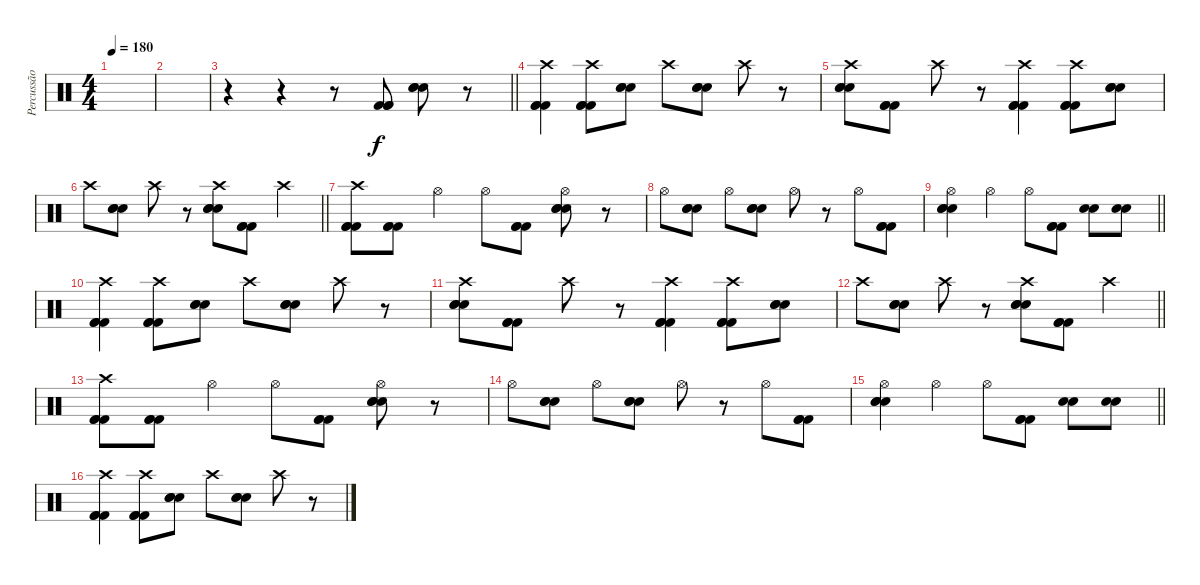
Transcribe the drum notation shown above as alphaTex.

\track ("Percussão" "Percussão") {instrument percussion}
\staff {score}
\articulation defaults
\ts (4 4)
\tempo 180
\clef neutral
\ks c
|
|
\barLineRight lightlight
r.4 r.4 r.8 ("Kick (hit) 2" "Kick (hit) 2" "Kick (hit) 2").8 ("Electric Snare (hit)" "Electric Snare (hit)" "Electric Snare (hit)").8 r.8 |
\section ("" "")
("Crash high (hit)" "Kick (hit) 2" "Kick (hit) 2" "Kick (hit) 2").4 ("Crash high (hit)" "Kick (hit) 2" "Kick (hit) 2" "Kick (hit) 2").8 ("Electric Snare (hit)" "Electric Snare (hit)" "Electric Snare (hit)").8 "Crash high (hit)".8 ("Electric Snare (hit)" "Electric Snare (hit)" "Electric Snare (hit)").8 "Crash high (hit)".8 r.8 |
("Crash high (hit)" "Electric Snare (hit)" "Electric Snare (hit)" "Electric Snare (hit)").8 ("Kick (hit) 2" "Kick (hit) 2" "Kick (hit) 2").8 "Crash high (hit)".8 r.8 ("Crash high (hit)" "Kick (hit) 2" "Kick (hit) 2" "Kick (hit) 2").4 ("Crash high (hit)" "Kick (hit) 2" "Kick (hit) 2" "Kick (hit) 2").8 ("Electric Snare (hit)" "Electric Snare (hit)" "Electric Snare (hit)").8 |
\barLineRight lightlight "Crash high (hit)".8
("Electric Snare (hit)" "Electric Snare (hit)" "Electric Snare (hit)").8 "Crash high (hit)".8 r.8 ("Crash high (hit)" "Electric Snare (hit)" "Electric Snare (hit)" "Electric Snare (hit)").8 ("Kick (hit) 2" "Kick (hit) 2" "Kick (hit) 2").8 "Crash high (hit)".4 |
\section ("" "")
("Crash high (hit)" "Kick (hit) 2" "Kick (hit) 2" "Kick (hit) 2").8 ("Kick (hit) 2" "Kick (hit) 2" "Kick (hit) 2").8 "Hi-Hat (open)".4 "Hi-Hat (open)".8 ("Kick (hit) 2" "Kick (hit) 2" "Kick (hit) 2").8 ("Hi-Hat (open)" "Electric Snare (hit)" "Electric Snare (hit)" "Electric Snare (hit)").8 r.8 |
"Hi-Hat (open)".8 ("Electric Snare (hit)" "Electric Snare (hit)" "Electric Snare (hit)").8 "Hi-Hat (open)".8 ("Electric Snare (hit)" "Electric Snare (hit)" "Electric Snare (hit)").8 "Hi-Hat (open)".8 r.8 "Hi-Hat (open)".8 ("Kick (hit) 2" "Kick (hit) 2" "Kick (hit) 2").8 |
\barLineRight lightlight
("Hi-Hat (open)" "Electric Snare (hit)" "Electric Snare (hit)" "Electric Snare (hit)").4 "Hi-Hat (open)".4 "Hi-Hat (open)".8 ("Kick (hit) 2" "Kick (hit) 2" "Kick (hit) 2").8 ("Electric Snare (hit)" "Electric Snare (hit)").8 ("Electric Snare (hit)" "Electric Snare (hit)").8 |
\section ("" "")
("Crash high (hit)" "Kick (hit) 2" "Kick (hit) 2" "Kick (hit) 2").4 ("Crash high (hit)" "Kick (hit) 2" "Kick (hit) 2" "Kick (hit) 2").8 ("Electric Snare (hit)" "Electric Snare (hit)" "Electric Snare (hit)").8 "Crash high (hit)".8 ("Electric Snare (hit)" "Electric Snare (hit)" "Electric Snare (hit)").8 "Crash high (hit)".8 r.8 |
("Crash high (hit)" "Electric Snare (hit)" "Electric Snare (hit)" "Electric Snare (hit)").8 ("Kick (hit) 2" "Kick (hit) 2" "Kick (hit) 2").8 "Crash high (hit)".8 r.8 ("Crash high (hit)" "Kick (hit) 2" "Kick (hit) 2" "Kick (hit) 2").4 ("Crash high (hit)" "Kick (hit) 2" "Kick (hit) 2" "Kick (hit) 2").8 ("Electric Snare (hit)" "Electric Snare (hit)" "Electric Snare (hit)").8 |
\barLineRight lightlight "Crash high (hit)".8
("Electric Snare (hit)" "Electric Snare (hit)" "Electric Snare (hit)").8 "Crash high (hit)".8 r.8 ("Crash high (hit)" "Electric Snare (hit)" "Electric Snare (hit)" "Electric Snare (hit)").8 ("Kick (hit) 2" "Kick (hit) 2" "Kick (hit) 2").8 "Crash high (hit)".4 |
\section ("" "")
("Crash high (hit)" "Kick (hit) 2" "Kick (hit) 2" "Kick (hit) 2").8 ("Kick (hit) 2" "Kick (hit) 2" "Kick (hit) 2").8 "Hi-Hat (open)".4 "Hi-Hat (open)".8 ("Kick (hit) 2" "Kick (hit) 2" "Kick (hit) 2").8 ("Hi-Hat (open)" "Electric Snare (hit)" "Electric Snare (hit)" "Electric Snare (hit)").8 r.8 |
"Hi-Hat (open)".8 ("Electric Snare (hit)" "Electric Snare (hit)" "Electric Snare (hit)").8 "Hi-Hat (open)".8 ("Electric Snare (hit)" "Electric Snare (hit)" "Electric Snare (hit)").8 "Hi-Hat (open)".8 r.8 "Hi-Hat (open)".8 ("Kick (hit) 2" "Kick (hit) 2" "Kick (hit) 2").8 |
\barLineRight lightlight
("Hi-Hat (open)" "Electric Snare (hit)" "Electric Snare (hit)" "Electric Snare (hit)").4 "Hi-Hat (open)".4 "Hi-Hat (open)".8 ("Kick (hit) 2" "Kick (hit) 2" "Kick (hit) 2").8 ("Electric Snare (hit)" "Electric Snare (hit)").8 ("Electric Snare (hit)" "Electric Snare (hit)").8 |
\section ("" "")
("Crash high (hit)" "Kick (hit) 2" "Kick (hit) 2" "Kick (hit) 2").4 ("Crash high (hit)" "Kick (hit) 2" "Kick (hit) 2" "Kick (hit) 2").8 ("Electric Snare (hit)" "Electric Snare (hit)" "Electric Snare (hit)").8 "Crash high (hit)".8 ("Electric Snare (hit)" "Electric Snare (hit)" "Electric Snare (hit)").8 "Crash high (hit)".8 r.8
